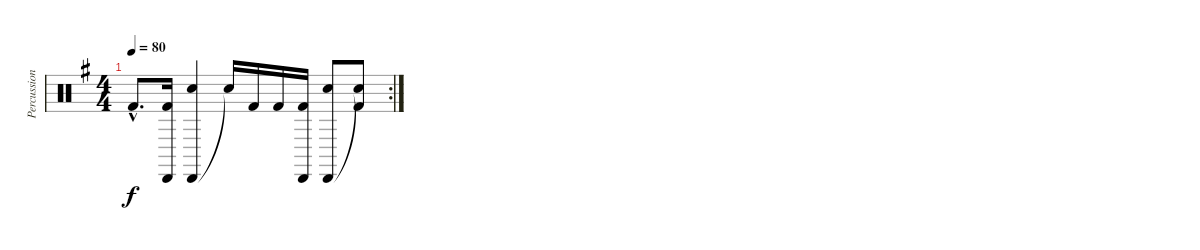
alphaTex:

\track ("Percussions" "Percussion") {instrument percussion}
\staff {score}
\articulation defaults
\rc 2
\ts (4 4)
\tempo 80
\clef neutral
\ks g "Kick (hit) 2"{hac}.8{d dy f}
("Cabasa (hit)" "Kick (hit) 2").16 ("Cabasa (hit)" "Electric Snare (hit)").4 "Snare (hit)"{t}.16 "Kick (hit) 2".16 "Kick (hit) 2".16 ("Cabasa (hit)" "Kick (hit) 2").16 ("Cabasa (hit)" "Electric Snare (hit)").8 ("Snare (hit)"{t} "Kick (hit) 2").8
